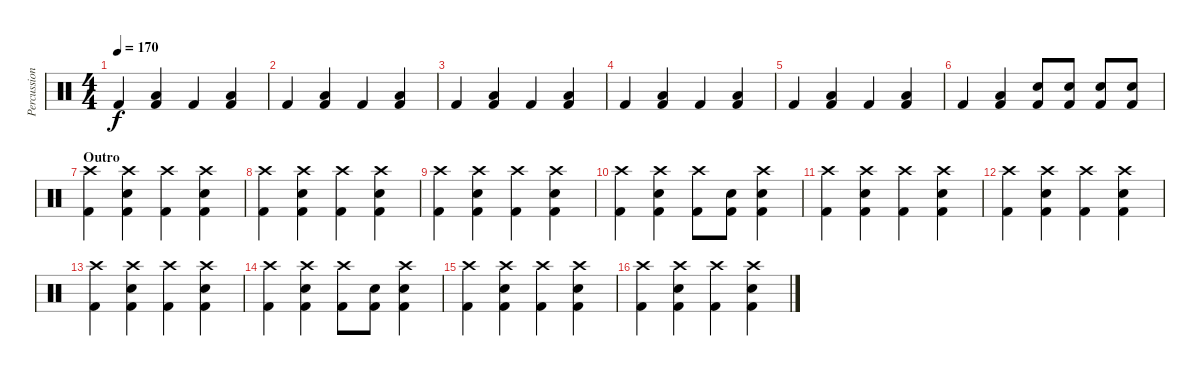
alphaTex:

\track ("Percussion" "Percussion") {instrument percussion}
\staff {score}
\articulation defaults
\ts (4 4)
\tempo 170
\clef neutral
\ks c "Kick (hit) 2".4{dy f}
("Low Tom (hit)" "Kick (hit) 2").4 "Kick (hit) 2".4 ("Low Tom (hit)" "Kick (hit) 2").4 |
"Kick (hit) 2".4 ("Low Tom (hit)" "Kick (hit) 2").4 "Kick (hit) 2".4 ("Low Tom (hit)" "Kick (hit) 2").4 |
"Kick (hit) 2".4 ("Low Tom (hit)" "Kick (hit) 2").4 "Kick (hit) 2".4 ("Low Tom (hit)" "Kick (hit) 2").4 |
"Kick (hit) 2".4 ("Low Tom (hit)" "Kick (hit) 2").4 "Kick (hit) 2".4 ("Low Tom (hit)" "Kick (hit) 2").4 |
"Kick (hit) 2".4 ("Low Tom (hit)" "Kick (hit) 2").4 "Kick (hit) 2".4 ("Low Tom (hit)" "Kick (hit) 2").4 |
"Kick (hit) 2".4 ("Low Tom (hit)" "Kick (hit) 2").4 ("Snare (hit) 2" "Kick (hit) 2").8 ("Snare (hit) 2" "Kick (hit) 2").8 ("Snare (hit) 2" "Kick (hit) 2").8 ("Snare (hit) 2" "Kick (hit) 2").8 |
\section ("" "Outro")
("Crash high (hit)" "Kick (hit) 2").4 ("Crash high (hit)" "Snare (hit) 2" "Kick (hit) 2").4 ("Crash high (hit)" "Kick (hit) 2").4 ("Crash high (hit)" "Snare (hit) 2" "Kick (hit) 2").4 |
("Crash high (hit)" "Kick (hit) 2").4 ("Crash high (hit)" "Snare (hit) 2" "Kick (hit) 2").4 ("Crash high (hit)" "Kick (hit) 2").4 ("Crash high (hit)" "Snare (hit) 2" "Kick (hit) 2").4 |
("Crash high (hit)" "Kick (hit) 2").4 ("Crash high (hit)" "Snare (hit) 2" "Kick (hit) 2").4 ("Crash high (hit)" "Kick (hit) 2").4 ("Crash high (hit)" "Snare (hit) 2" "Kick (hit) 2").4 |
("Crash high (hit)" "Kick (hit) 2").4 ("Crash high (hit)" "Snare (hit) 2" "Kick (hit) 2").4 ("Crash high (hit)" "Kick (hit) 2").8 ("Snare (hit) 2" "Kick (hit) 2").8 ("Crash high (hit)" "Snare (hit) 2" "Kick (hit) 2").4 |
("Crash high (hit)" "Kick (hit) 2").4 ("Crash high (hit)" "Snare (hit) 2" "Kick (hit) 2").4 ("Crash high (hit)" "Kick (hit) 2").4 ("Crash high (hit)" "Snare (hit) 2" "Kick (hit) 2").4 |
("Crash high (hit)" "Kick (hit) 2").4 ("Crash high (hit)" "Snare (hit) 2" "Kick (hit) 2").4 ("Crash high (hit)" "Kick (hit) 2").4 ("Crash high (hit)" "Snare (hit) 2" "Kick (hit) 2").4 |
("Crash high (hit)" "Kick (hit) 2").4 ("Crash high (hit)" "Snare (hit) 2" "Kick (hit) 2").4 ("Crash high (hit)" "Kick (hit) 2").4 ("Crash high (hit)" "Snare (hit) 2" "Kick (hit) 2").4 |
("Crash high (hit)" "Kick (hit) 2").4 ("Crash high (hit)" "Snare (hit) 2" "Kick (hit) 2").4 ("Crash high (hit)" "Kick (hit) 2").8 ("Snare (hit) 2" "Kick (hit) 2").8 ("Crash high (hit)" "Snare (hit) 2" "Kick (hit) 2").4 |
("Crash high (hit)" "Kick (hit) 2").4 ("Crash high (hit)" "Snare (hit) 2" "Kick (hit) 2").4 ("Crash high (hit)" "Kick (hit) 2").4 ("Crash high (hit)" "Snare (hit) 2" "Kick (hit) 2").4 |
("Crash high (hit)" "Kick (hit) 2").4 ("Crash high (hit)" "Snare (hit) 2" "Kick (hit) 2").4 ("Crash high (hit)" "Kick (hit) 2").4 ("Crash high (hit)" "Snare (hit) 2" "Kick (hit) 2").4
